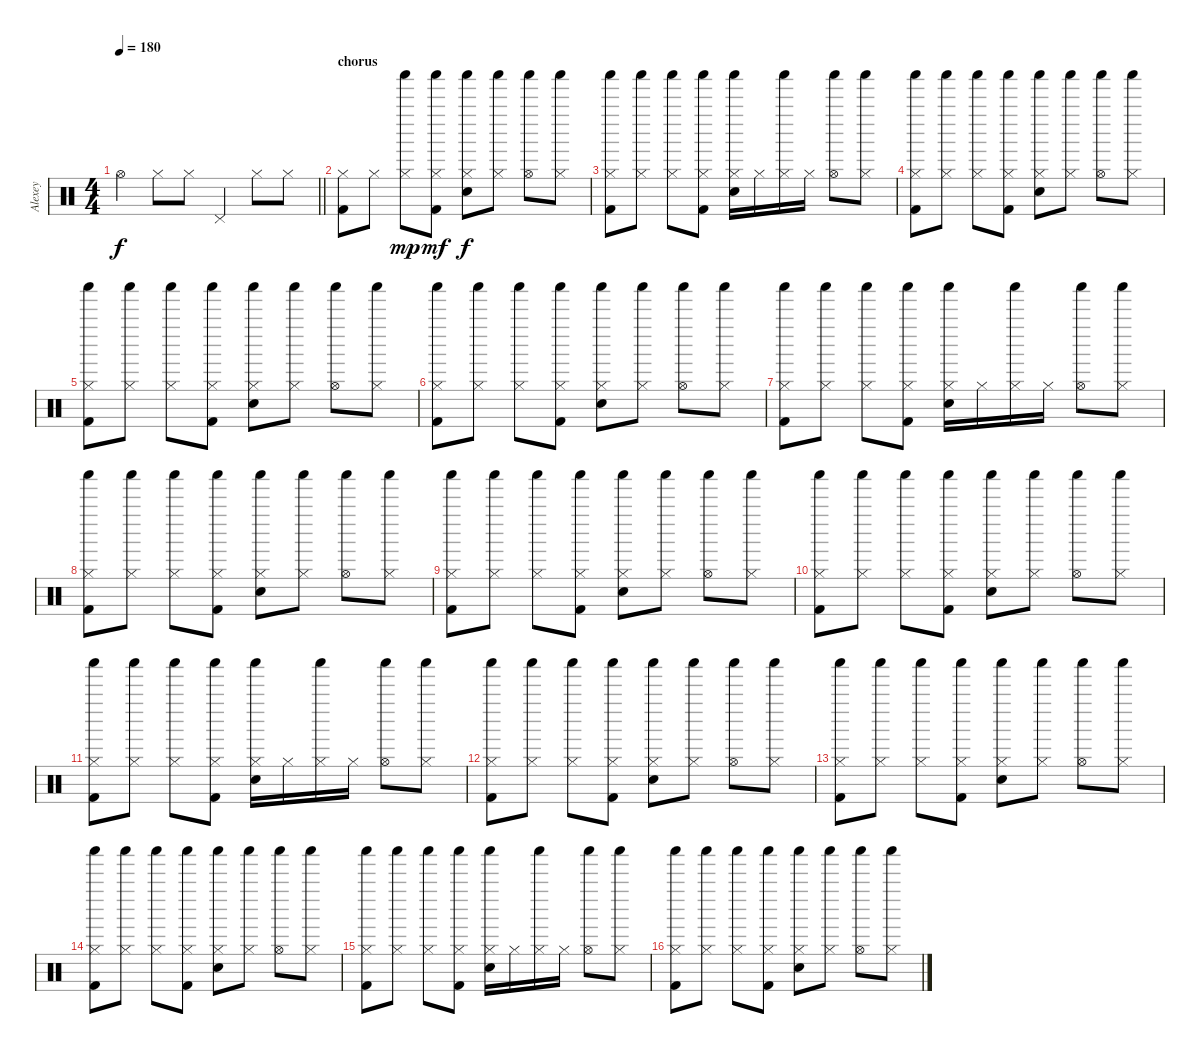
\track ("Alexey" "Alexey") {instrument percussion}
\staff {score}
\articulation defaults
\ts (4 4)
\tempo 180
\clef neutral
\barLineRight lightlight
\ks c "Hi-Hat (open)".4{dy f} "Hi-Hat (closed)".8 "Hi-Hat (closed)".8 "Pedal Hi-Hat (hit)".4 "Hi-Hat (closed)".8 "Hi-Hat (closed)".8
|
\section ("" "chorus")
("Hi-Hat (closed)" "Kick (hit) 2").8 "Hi-Hat (closed)".8 ("Hi-Hat (closed)" "Shaker (hit)").8{dy mp} ("Hi-Hat (closed)" "Shaker (hit)" "Kick (hit) 2").8{dy mf} ("Hi-Hat (closed)" "Shaker (hit)" "Snare (hit) 2").8{dy f} ("Hi-Hat (closed)" "Shaker (hit)").8 ("Hi-Hat (open)" "Shaker (hit)").8 ("Hi-Hat (closed)" "Shaker (hit)").8 |
("Hi-Hat (closed)" "Shaker (hit)" "Kick (hit) 2").8 ("Hi-Hat (closed)" "Shaker (hit)").8 ("Hi-Hat (closed)" "Shaker (hit)").8 ("Hi-Hat (closed)" "Shaker (hit)" "Kick (hit) 2").8 ("Hi-Hat (closed)" "Shaker (hit)" "Snare (hit) 2").16 "Hi-Hat (closed)".16 ("Hi-Hat (closed)" "Shaker (hit)").16 "Hi-Hat (closed)".16 ("Hi-Hat (open)" "Shaker (hit)").8 ("Hi-Hat (closed)" "Shaker (hit)").8 |
("Hi-Hat (closed)" "Shaker (hit)" "Kick (hit) 2").8 ("Hi-Hat (closed)" "Shaker (hit)").8 ("Hi-Hat (closed)" "Shaker (hit)").8 ("Hi-Hat (closed)" "Shaker (hit)" "Kick (hit) 2").8 ("Hi-Hat (closed)" "Shaker (hit)" "Snare (hit) 2").8 ("Hi-Hat (closed)" "Shaker (hit)").8 ("Hi-Hat (open)" "Shaker (hit)").8 ("Hi-Hat (closed)" "Shaker (hit)").8 |
("Hi-Hat (closed)" "Shaker (hit)" "Kick (hit) 2").8 ("Hi-Hat (closed)" "Shaker (hit)").8 ("Hi-Hat (closed)" "Shaker (hit)").8 ("Hi-Hat (closed)" "Shaker (hit)" "Kick (hit) 2").8 ("Hi-Hat (closed)" "Shaker (hit)" "Snare (hit) 2").8 ("Hi-Hat (closed)" "Shaker (hit)").8 ("Hi-Hat (open)" "Shaker (hit)").8 ("Hi-Hat (closed)" "Shaker (hit)").8 |
("Hi-Hat (closed)" "Shaker (hit)" "Kick (hit) 2").8 ("Hi-Hat (closed)" "Shaker (hit)").8 ("Hi-Hat (closed)" "Shaker (hit)").8 ("Hi-Hat (closed)" "Shaker (hit)" "Kick (hit) 2").8 ("Hi-Hat (closed)" "Shaker (hit)" "Snare (hit) 2").8 ("Hi-Hat (closed)" "Shaker (hit)").8 ("Hi-Hat (open)" "Shaker (hit)").8 ("Hi-Hat (closed)" "Shaker (hit)").8 |
("Hi-Hat (closed)" "Shaker (hit)" "Kick (hit) 2").8 ("Hi-Hat (closed)" "Shaker (hit)").8 ("Hi-Hat (closed)" "Shaker (hit)").8 ("Hi-Hat (closed)" "Shaker (hit)" "Kick (hit) 2").8 ("Hi-Hat (closed)" "Shaker (hit)" "Snare (hit) 2").16 "Hi-Hat (closed)".16 ("Hi-Hat (closed)" "Shaker (hit)").16 "Hi-Hat (closed)".16 ("Hi-Hat (open)" "Shaker (hit)").8 ("Hi-Hat (closed)" "Shaker (hit)").8 |
("Hi-Hat (closed)" "Shaker (hit)" "Kick (hit) 2").8 ("Hi-Hat (closed)" "Shaker (hit)").8 ("Hi-Hat (closed)" "Shaker (hit)").8 ("Hi-Hat (closed)" "Shaker (hit)" "Kick (hit) 2").8 ("Hi-Hat (closed)" "Shaker (hit)" "Snare (hit) 2").8 ("Hi-Hat (closed)" "Shaker (hit)").8 ("Hi-Hat (open)" "Shaker (hit)").8 ("Hi-Hat (closed)" "Shaker (hit)").8 |
("Hi-Hat (closed)" "Shaker (hit)" "Kick (hit) 2").8 ("Hi-Hat (closed)" "Shaker (hit)").8 ("Hi-Hat (closed)" "Shaker (hit)").8 ("Hi-Hat (closed)" "Shaker (hit)" "Kick (hit) 2").8 ("Hi-Hat (closed)" "Shaker (hit)" "Snare (hit) 2").8 ("Hi-Hat (closed)" "Shaker (hit)").8 ("Hi-Hat (open)" "Shaker (hit)").8 ("Hi-Hat (closed)" "Shaker (hit)").8 |
("Hi-Hat (closed)" "Shaker (hit)" "Kick (hit) 2").8 ("Hi-Hat (closed)" "Shaker (hit)").8 ("Hi-Hat (closed)" "Shaker (hit)").8 ("Hi-Hat (closed)" "Shaker (hit)" "Kick (hit) 2").8 ("Hi-Hat (closed)" "Shaker (hit)" "Snare (hit) 2").8 ("Hi-Hat (closed)" "Shaker (hit)").8 ("Hi-Hat (open)" "Shaker (hit)").8 ("Hi-Hat (closed)" "Shaker (hit)").8 |
("Hi-Hat (closed)" "Shaker (hit)" "Kick (hit) 2").8 ("Hi-Hat (closed)" "Shaker (hit)").8 ("Hi-Hat (closed)" "Shaker (hit)").8 ("Hi-Hat (closed)" "Shaker (hit)" "Kick (hit) 2").8 ("Hi-Hat (closed)" "Shaker (hit)" "Snare (hit) 2").16 "Hi-Hat (closed)".16 ("Hi-Hat (closed)" "Shaker (hit)").16 "Hi-Hat (closed)".16 ("Hi-Hat (open)" "Shaker (hit)").8 ("Hi-Hat (closed)" "Shaker (hit)").8 |
("Hi-Hat (closed)" "Shaker (hit)" "Kick (hit) 2").8 ("Hi-Hat (closed)" "Shaker (hit)").8 ("Hi-Hat (closed)" "Shaker (hit)").8 ("Hi-Hat (closed)" "Shaker (hit)" "Kick (hit) 2").8 ("Hi-Hat (closed)" "Shaker (hit)" "Snare (hit) 2").8 ("Hi-Hat (closed)" "Shaker (hit)").8 ("Hi-Hat (open)" "Shaker (hit)").8 ("Hi-Hat (closed)" "Shaker (hit)").8 |
("Hi-Hat (closed)" "Shaker (hit)" "Kick (hit) 2").8 ("Hi-Hat (closed)" "Shaker (hit)").8 ("Hi-Hat (closed)" "Shaker (hit)").8 ("Hi-Hat (closed)" "Shaker (hit)" "Kick (hit) 2").8 ("Hi-Hat (closed)" "Shaker (hit)" "Snare (hit) 2").8 ("Hi-Hat (closed)" "Shaker (hit)").8 ("Hi-Hat (open)" "Shaker (hit)").8 ("Hi-Hat (closed)" "Shaker (hit)").8 |
("Hi-Hat (closed)" "Shaker (hit)" "Kick (hit) 2").8 ("Hi-Hat (closed)" "Shaker (hit)").8 ("Hi-Hat (closed)" "Shaker (hit)").8 ("Hi-Hat (closed)" "Shaker (hit)" "Kick (hit) 2").8 ("Hi-Hat (closed)" "Shaker (hit)" "Snare (hit) 2").8 ("Hi-Hat (closed)" "Shaker (hit)").8 ("Hi-Hat (open)" "Shaker (hit)").8 ("Hi-Hat (closed)" "Shaker (hit)").8 |
("Hi-Hat (closed)" "Shaker (hit)" "Kick (hit) 2").8 ("Hi-Hat (closed)" "Shaker (hit)").8 ("Hi-Hat (closed)" "Shaker (hit)").8 ("Hi-Hat (closed)" "Shaker (hit)" "Kick (hit) 2").8 ("Hi-Hat (closed)" "Shaker (hit)" "Snare (hit) 2").16 "Hi-Hat (closed)".16 ("Hi-Hat (closed)" "Shaker (hit)").16 "Hi-Hat (closed)".16 ("Hi-Hat (open)" "Shaker (hit)").8 ("Hi-Hat (closed)" "Shaker (hit)").8 |
("Hi-Hat (closed)" "Shaker (hit)" "Kick (hit) 2").8 ("Hi-Hat (closed)" "Shaker (hit)").8 ("Hi-Hat (closed)" "Shaker (hit)").8 ("Hi-Hat (closed)" "Shaker (hit)" "Kick (hit) 2").8 ("Hi-Hat (closed)" "Shaker (hit)" "Snare (hit) 2").8 ("Hi-Hat (closed)" "Shaker (hit)").8 ("Hi-Hat (open)" "Shaker (hit)").8 ("Hi-Hat (closed)" "Shaker (hit)").8
